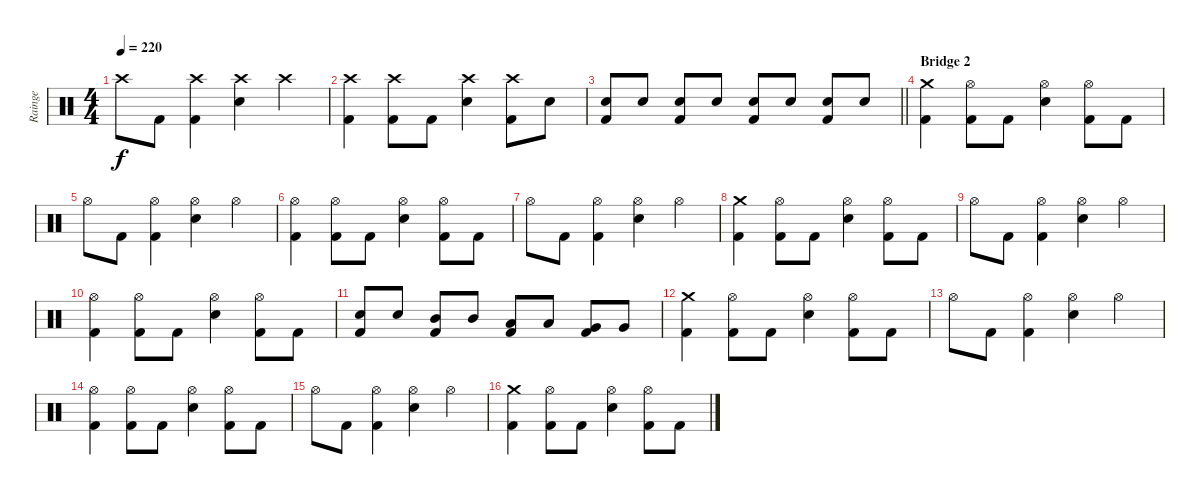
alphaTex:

\track ("Rainge" "Rainge") {instrument percussion}
\staff {score}
\articulation defaults
\ts (4 4)
\tempo 220
\clef neutral
\ks c "Crash high (hit)".8{dy f} "Kick (hit) 2".8
("Crash high (hit)" "Kick (hit) 2").4 ("Crash high (hit)" "Electric Snare (hit)").4 "Crash high (hit)".4 |
("Crash high (hit)" "Kick (hit) 2").4 ("Crash high (hit)" "Kick (hit) 2").8 "Kick (hit) 2".8 ("Crash high (hit)" "Electric Snare (hit)").4 ("Crash high (hit)" "Kick (hit) 2").8 "Electric Snare (hit)".8 |
\barLineRight lightlight
("Electric Snare (hit)" "Kick (hit) 2").8 "Electric Snare (hit)".8 ("Electric Snare (hit)" "Kick (hit) 2").8 "Electric Snare (hit)".8 ("Electric Snare (hit)" "Kick (hit) 2").8 "Electric Snare (hit)".8 ("Electric Snare (hit)" "Kick (hit) 2").8 "Electric Snare (hit)".8 |
\section ("" "Bridge 2")
("Crash medium (hit)" "Kick (hit) 2").4 ("Hi-Hat (open)" "Kick (hit) 2").8 "Kick (hit) 2".8 ("Hi-Hat (open)" "Electric Snare (hit)").4 ("Hi-Hat (open)" "Kick (hit) 2").8 "Kick (hit) 2".8 |
"Hi-Hat (open)".8 "Kick (hit) 2".8 ("Hi-Hat (open)" "Kick (hit) 2").4 ("Hi-Hat (open)" "Electric Snare (hit)").4 "Hi-Hat (open)".4 |
("Hi-Hat (open)" "Kick (hit) 2").4 ("Hi-Hat (open)" "Kick (hit) 2").8 "Kick (hit) 2".8 ("Hi-Hat (open)" "Electric Snare (hit)").4 ("Hi-Hat (open)" "Kick (hit) 2").8 "Kick (hit) 2".8 |
"Hi-Hat (open)".8 "Kick (hit) 2".8 ("Hi-Hat (open)" "Kick (hit) 2").4 ("Hi-Hat (open)" "Electric Snare (hit)").4 "Hi-Hat (open)".4 |
("Crash medium (hit)" "Kick (hit) 2").4 ("Hi-Hat (open)" "Kick (hit) 2").8 "Kick (hit) 2".8 ("Hi-Hat (open)" "Electric Snare (hit)").4 ("Hi-Hat (open)" "Kick (hit) 2").8 "Kick (hit) 2".8 |
"Hi-Hat (open)".8 "Kick (hit) 2".8 ("Hi-Hat (open)" "Kick (hit) 2").4 ("Hi-Hat (open)" "Electric Snare (hit)").4 "Hi-Hat (open)".4 |
("Hi-Hat (open)" "Kick (hit) 2").4 ("Hi-Hat (open)" "Kick (hit) 2").8 "Kick (hit) 2".8 ("Hi-Hat (open)" "Electric Snare (hit)").4 ("Hi-Hat (open)" "Kick (hit) 2").8 "Kick (hit) 2".8 |
("Electric Snare (hit)" "Kick (hit) 2").8 "Electric Snare (hit)".8 ("Mid Tom (hit)" "Kick (hit) 2").8 "Mid Tom (hit)".8 ("Low Tom (hit)" "Kick (hit) 2").8 "Low Tom (hit)".8 ("Very Low Tom (hit)" "Kick (hit) 2").8 "Very Low Tom (hit)".8 |
("Crash medium (hit)" "Kick (hit) 2").4 ("Hi-Hat (open)" "Kick (hit) 2").8 "Kick (hit) 2".8 ("Hi-Hat (open)" "Electric Snare (hit)").4 ("Hi-Hat (open)" "Kick (hit) 2").8 "Kick (hit) 2".8 |
"Hi-Hat (open)".8 "Kick (hit) 2".8 ("Hi-Hat (open)" "Kick (hit) 2").4 ("Hi-Hat (open)" "Electric Snare (hit)").4 "Hi-Hat (open)".4 |
("Hi-Hat (open)" "Kick (hit) 2").4 ("Hi-Hat (open)" "Kick (hit) 2").8 "Kick (hit) 2".8 ("Hi-Hat (open)" "Electric Snare (hit)").4 ("Hi-Hat (open)" "Kick (hit) 2").8 "Kick (hit) 2".8 |
"Hi-Hat (open)".8 "Kick (hit) 2".8 ("Hi-Hat (open)" "Kick (hit) 2").4 ("Hi-Hat (open)" "Electric Snare (hit)").4 "Hi-Hat (open)".4 |
("Crash medium (hit)" "Kick (hit) 2").4 ("Hi-Hat (open)" "Kick (hit) 2").8 "Kick (hit) 2".8 ("Hi-Hat (open)" "Electric Snare (hit)").4 ("Hi-Hat (open)" "Kick (hit) 2").8 "Kick (hit) 2".8
